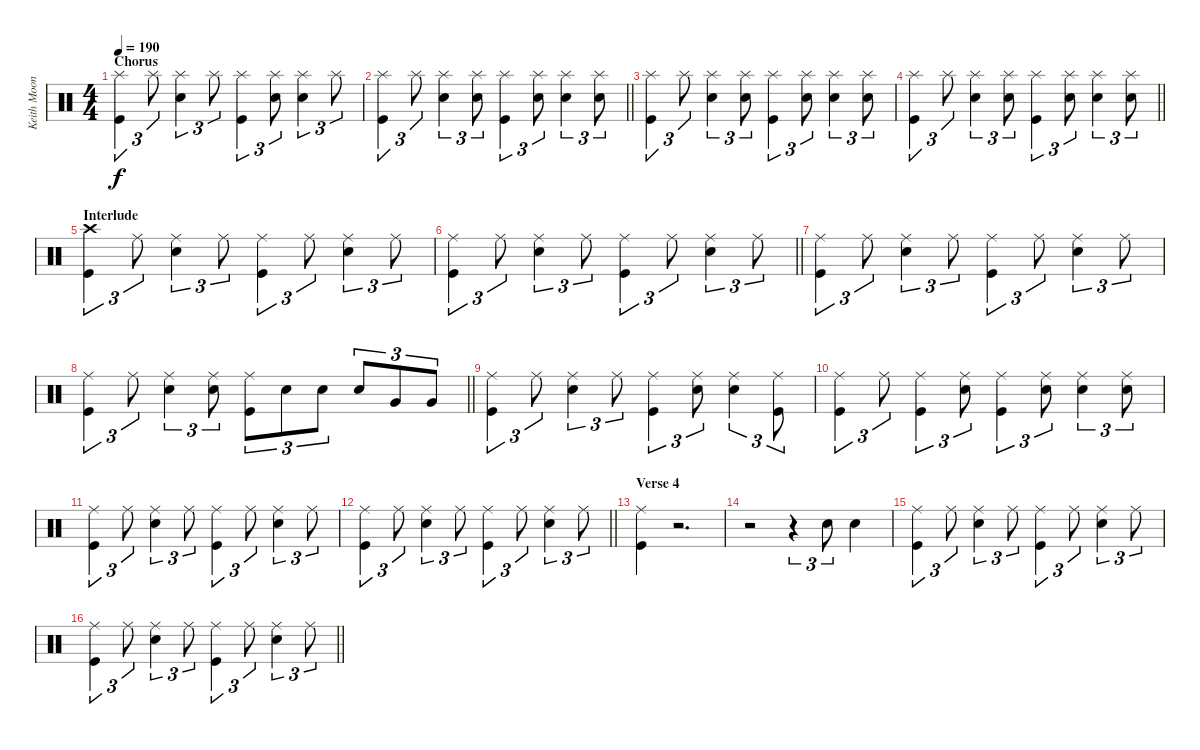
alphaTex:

\track ("Keith Moon" "Keith Moon") {instrument percussion}
\staff {score}
\articulation defaults
\ts (4 4)
\section ("" "Chorus")
\tempo 190
\clef neutral
\ks c
("Splash (hit)" "Kick (hit)").4{tu (3 2) dy f} "Splash (hit)".8{tu (3 2)} ("Splash (hit)" "Snare (hit) 2").4{tu (3 2)} "Splash (hit)".8{tu (3 2)} ("Splash (hit)" "Kick (hit)").4{tu (3 2)} ("Splash (hit)" "Snare (hit) 2").8{tu (3 2)} ("Splash (hit)" "Snare (hit) 2").4{tu (3 2)} "Splash (hit)".8{tu (3 2)} |
\barLineRight lightlight
("Splash (hit)" "Kick (hit)").4{tu (3 2)} "Splash (hit)".8{tu (3 2)} ("Splash (hit)" "Snare (hit) 2").4{tu (3 2)} ("Splash (hit)" "Snare (hit) 2").8{tu (3 2)} ("Splash (hit)" "Kick (hit)").4{tu (3 2)} ("Splash (hit)" "Snare (hit) 2").8{tu (3 2)} ("Splash (hit)" "Snare (hit) 2").4{tu (3 2)} ("Splash (hit)" "Snare (hit) 2").8{tu (3 2)} |
("Splash (hit)" "Kick (hit)").4{tu (3 2)} "Splash (hit)".8{tu (3 2)} ("Splash (hit)" "Snare (hit) 2").4{tu (3 2)} ("Splash (hit)" "Snare (hit) 2").8{tu (3 2)} ("Splash (hit)" "Kick (hit)").4{tu (3 2)} ("Splash (hit)" "Snare (hit) 2").8{tu (3 2)} ("Splash (hit)" "Snare (hit) 2").4{tu (3 2)} ("Splash (hit)" "Snare (hit) 2").8{tu (3 2)} |
\barLineRight lightlight
("Splash (hit)" "Kick (hit)").4{tu (3 2)} "Splash (hit)".8{tu (3 2)} ("Splash (hit)" "Snare (hit) 2").4{tu (3 2)} ("Splash (hit)" "Snare (hit) 2").8{tu (3 2)} ("Splash (hit)" "Kick (hit)").4{tu (3 2)} ("Splash (hit)" "Snare (hit) 2").8{tu (3 2)} ("Splash (hit)" "Snare (hit) 2").4{tu (3 2)} ("Splash (hit)" "Snare (hit) 2").8{tu (3 2)} |
\section ("" "Interlude")
("Crash high (hit)" "Kick (hit)").4{tu (3 2)} "Ride (middle)".8{tu (3 2)} ("Ride (middle)" "Snare (hit) 2").4{tu (3 2)} "Ride (middle)".8{tu (3 2)} ("Ride (middle)" "Kick (hit)").4{tu (3 2)} "Ride (middle)".8{tu (3 2)} ("Ride (middle)" "Snare (hit) 2").4{tu (3 2)} "Ride (middle)".8{tu (3 2)} |
\barLineRight lightlight
("Ride (middle)" "Kick (hit)").4{tu (3 2)} "Ride (middle)".8{tu (3 2)} ("Ride (middle)" "Snare (hit) 2").4{tu (3 2)} "Ride (middle)".8{tu (3 2)} ("Ride (middle)" "Kick (hit)").4{tu (3 2)} "Ride (middle)".8{tu (3 2)} ("Ride (middle)" "Snare (hit) 2").4{tu (3 2)} "Ride (middle)".8{tu (3 2)} |
("Ride (middle)" "Kick (hit)").4{tu (3 2)} "Ride (middle)".8{tu (3 2)} ("Ride (middle)" "Snare (hit) 2").4{tu (3 2)} "Ride (middle)".8{tu (3 2)} ("Ride (middle)" "Kick (hit)").4{tu (3 2)} "Ride (middle)".8{tu (3 2)} ("Ride (middle)" "Snare (hit) 2").4{tu (3 2)} "Ride (middle)".8{tu (3 2)} |
\barLineRight lightlight
("Ride (middle)" "Kick (hit)").4{tu (3 2)} "Ride (middle)".8{tu (3 2)} ("Ride (middle)" "Snare (hit) 2").4{tu (3 2)} ("Ride (middle)" "Snare (hit) 2").8{tu (3 2)} ("Ride (middle)" "Kick (hit)").8{tu (3 2)} "Snare (hit) 2".8{tu (3 2)} "Snare (hit) 2".8{tu (3 2)} "Snare (hit) 2".8{tu (3 2)} "Very Low Tom (hit)".8{tu (3 2)} "Very Low Tom (hit)".8{tu (3 2)} |
("Ride (middle)" "Kick (hit)").4{tu (3 2)} "Ride (middle)".8{tu (3 2)} ("Ride (middle)" "Snare (hit) 2").4{tu (3 2)} "Ride (middle)".8{tu (3 2)} ("Ride (middle)" "Kick (hit)").4{tu (3 2)} ("Ride (middle)" "Snare (hit) 2").8{tu (3 2)} ("Ride (middle)" "Snare (hit) 2").4{tu (3 2)} ("Ride (middle)" "Kick (hit)").8{tu (3 2)} |
("Ride (middle)" "Kick (hit)").4{tu (3 2)} "Ride (middle)".8{tu (3 2)} ("Ride (middle)" "Kick (hit)").4{tu (3 2)} ("Ride (middle)" "Snare (hit) 2").8{tu (3 2)} ("Ride (middle)" "Kick (hit)").4{tu (3 2)} ("Ride (middle)" "Snare (hit) 2").8{tu (3 2)} ("Ride (middle)" "Snare (hit) 2").4{tu (3 2)} ("Ride (middle)" "Snare (hit) 2").8{tu (3 2)} |
("Ride (middle)" "Kick (hit)").4{tu (3 2)} "Ride (middle)".8{tu (3 2)} ("Ride (middle)" "Snare (hit) 2").4{tu (3 2)} "Ride (middle)".8{tu (3 2)} ("Ride (middle)" "Kick (hit)").4{tu (3 2)} "Ride (middle)".8{tu (3 2)} ("Ride (middle)" "Snare (hit) 2").4{tu (3 2)} "Ride (middle)".8{tu (3 2)} |
\barLineRight lightlight
("Ride (middle)" "Kick (hit)").4{tu (3 2)} "Ride (middle)".8{tu (3 2)} ("Ride (middle)" "Snare (hit) 2").4{tu (3 2)} "Ride (middle)".8{tu (3 2)} ("Ride (middle)" "Kick (hit)").4{tu (3 2)} "Ride (middle)".8{tu (3 2)} ("Ride (middle)" "Snare (hit) 2").4{tu (3 2)} "Ride (middle)".8{tu (3 2)} |
\section ("" "Verse 4")
("Ride (middle)" "Kick (hit)").4 r.2{d} |
r.2 r.4{tu (3 2)} "Snare (hit) 2".8{tu (3 2)} "Snare (hit) 2".4 |
("Ride (middle)" "Kick (hit)").4{tu (3 2)} "Ride (middle)".8{tu (3 2)} ("Ride (middle)" "Snare (hit) 2").4{tu (3 2)} "Ride (middle)".8{tu (3 2)} ("Ride (middle)" "Kick (hit)").4{tu (3 2)} "Ride (middle)".8{tu (3 2)} ("Ride (middle)" "Snare (hit) 2").4{tu (3 2)} "Ride (middle)".8{tu (3 2)} |
\barLineRight lightlight
("Ride (middle)" "Kick (hit)").4{tu (3 2)} "Ride (middle)".8{tu (3 2)} ("Ride (middle)" "Snare (hit) 2").4{tu (3 2)} "Ride (middle)".8{tu (3 2)} ("Ride (middle)" "Kick (hit)").4{tu (3 2)} "Ride (middle)".8{tu (3 2)} ("Ride (middle)" "Snare (hit) 2").4{tu (3 2)} "Ride (middle)".8{tu (3 2)}
